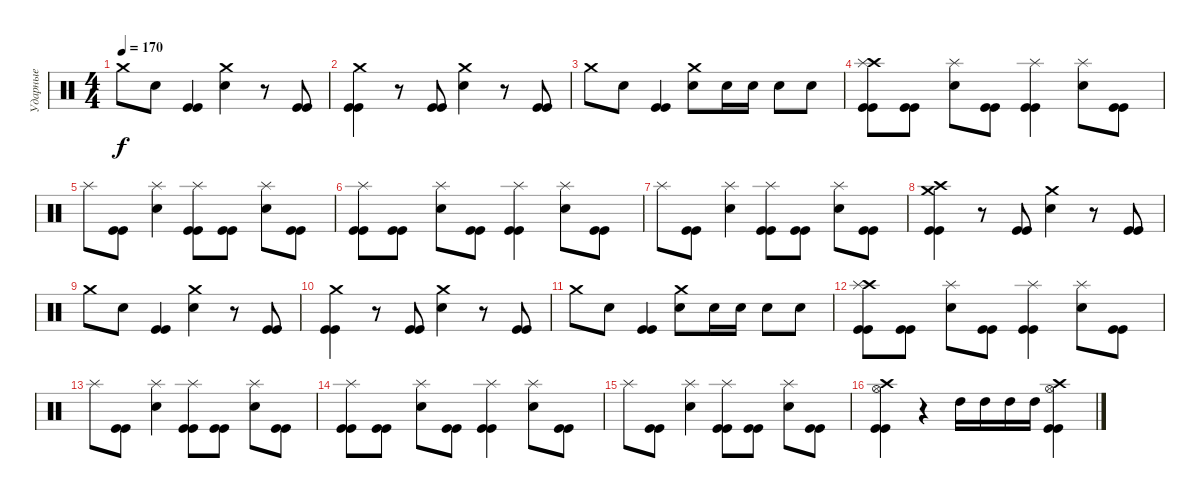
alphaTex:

\track ("Ударные" "Ударные") {instrument percussion}
\staff {score}
\articulation defaults
\ts (4 4)
\tempo 170
\clef neutral
\ks c "Crash medium (hit)".8{dy f} "Electric Snare (hit)".8
("Kick (hit)" "Kick (hit)").4 ("Crash medium (hit)" "Electric Snare (hit)").4 r.8 ("Kick (hit)" "Kick (hit)").8 |
("Crash medium (hit)" "Kick (hit)" "Kick (hit)").4 r.8 ("Kick (hit)" "Kick (hit)").8 ("Crash medium (hit)" "Electric Snare (hit)").4 r.8 ("Kick (hit)" "Kick (hit)").8 |
"Crash medium (hit)".8 "Electric Snare (hit)".8 ("Kick (hit)" "Kick (hit)").4 ("Crash medium (hit)" "Electric Snare (hit)").8 "Electric Snare (hit)".16 "Electric Snare (hit)".16 "Electric Snare (hit)".8 "Electric Snare (hit)".8 |
("Crash high (hit)" "Splash (hit)" "Kick (hit)" "Kick (hit)").8 ("Kick (hit)" "Kick (hit)").8 ("Splash (hit)" "Electric Snare (hit)").8 ("Kick (hit)" "Kick (hit)").8 ("Splash (hit)" "Kick (hit)" "Kick (hit)").4 ("Splash (hit)" "Electric Snare (hit)").8 ("Kick (hit)" "Kick (hit)").8 |
"Splash (hit)".8 ("Kick (hit)" "Kick (hit)").8 ("Splash (hit)" "Electric Snare (hit)").4 ("Splash (hit)" "Kick (hit)" "Kick (hit)").8 ("Kick (hit)" "Kick (hit)").8 ("Splash (hit)" "Electric Snare (hit)").8 ("Kick (hit)" "Kick (hit)").8 |
("Splash (hit)" "Kick (hit)" "Kick (hit)").8 ("Kick (hit)" "Kick (hit)").8 ("Splash (hit)" "Electric Snare (hit)").8 ("Kick (hit)" "Kick (hit)").8 ("Splash (hit)" "Kick (hit)" "Kick (hit)").4 ("Splash (hit)" "Electric Snare (hit)").8 ("Kick (hit)" "Kick (hit)").8 |
"Splash (hit)".8 ("Kick (hit)" "Kick (hit)").8 ("Splash (hit)" "Electric Snare (hit)").4 ("Splash (hit)" "Kick (hit)" "Kick (hit)").8 ("Kick (hit)" "Kick (hit)").8 ("Splash (hit)" "Electric Snare (hit)").8 ("Kick (hit)" "Kick (hit)").8 |
("Crash high (hit)" "Crash medium (hit)" "Kick (hit)" "Kick (hit)").4 r.8 ("Kick (hit)" "Kick (hit)").8 ("Crash medium (hit)" "Electric Snare (hit)").4 r.8 ("Kick (hit)" "Kick (hit)").8 |
"Crash medium (hit)".8 "Electric Snare (hit)".8 ("Kick (hit)" "Kick (hit)").4 ("Crash medium (hit)" "Electric Snare (hit)").4 r.8 ("Kick (hit)" "Kick (hit)").8 |
("Crash medium (hit)" "Kick (hit)" "Kick (hit)").4 r.8 ("Kick (hit)" "Kick (hit)").8 ("Crash medium (hit)" "Electric Snare (hit)").4 r.8 ("Kick (hit)" "Kick (hit)").8 |
"Crash medium (hit)".8 "Electric Snare (hit)".8 ("Kick (hit)" "Kick (hit)").4 ("Crash medium (hit)" "Electric Snare (hit)").8 "Electric Snare (hit)".16 "Electric Snare (hit)".16 "Electric Snare (hit)".8 "Electric Snare (hit)".8 |
("Crash high (hit)" "Splash (hit)" "Kick (hit)" "Kick (hit)").8 ("Kick (hit)" "Kick (hit)").8 ("Splash (hit)" "Electric Snare (hit)").8 ("Kick (hit)" "Kick (hit)").8 ("Splash (hit)" "Kick (hit)" "Kick (hit)").4 ("Splash (hit)" "Electric Snare (hit)").8 ("Kick (hit)" "Kick (hit)").8 |
"Splash (hit)".8 ("Kick (hit)" "Kick (hit)").8 ("Splash (hit)" "Electric Snare (hit)").4 ("Splash (hit)" "Kick (hit)" "Kick (hit)").8 ("Kick (hit)" "Kick (hit)").8 ("Splash (hit)" "Electric Snare (hit)").8 ("Kick (hit)" "Kick (hit)").8 |
("Splash (hit)" "Kick (hit)" "Kick (hit)").8 ("Kick (hit)" "Kick (hit)").8 ("Splash (hit)" "Electric Snare (hit)").8 ("Kick (hit)" "Kick (hit)").8 ("Splash (hit)" "Kick (hit)" "Kick (hit)").4 ("Splash (hit)" "Electric Snare (hit)").8 ("Kick (hit)" "Kick (hit)").8 |
"Splash (hit)".8 ("Kick (hit)" "Kick (hit)").8 ("Splash (hit)" "Electric Snare (hit)").4 ("Splash (hit)" "Kick (hit)" "Kick (hit)").8 ("Kick (hit)" "Kick (hit)").8 ("Splash (hit)" "Electric Snare (hit)").8 ("Kick (hit)" "Kick (hit)").8 |
("Crash high (hit)" "Hi-Hat (open)" "Kick (hit)" "Kick (hit)").4 r.4 "High Tom (hit)".16 "High Tom (hit)".16 "High Tom (hit)".16 "High Tom (hit)".16 ("Crash high (hit)" "Hi-Hat (open)" "Kick (hit)" "Kick (hit)").4
